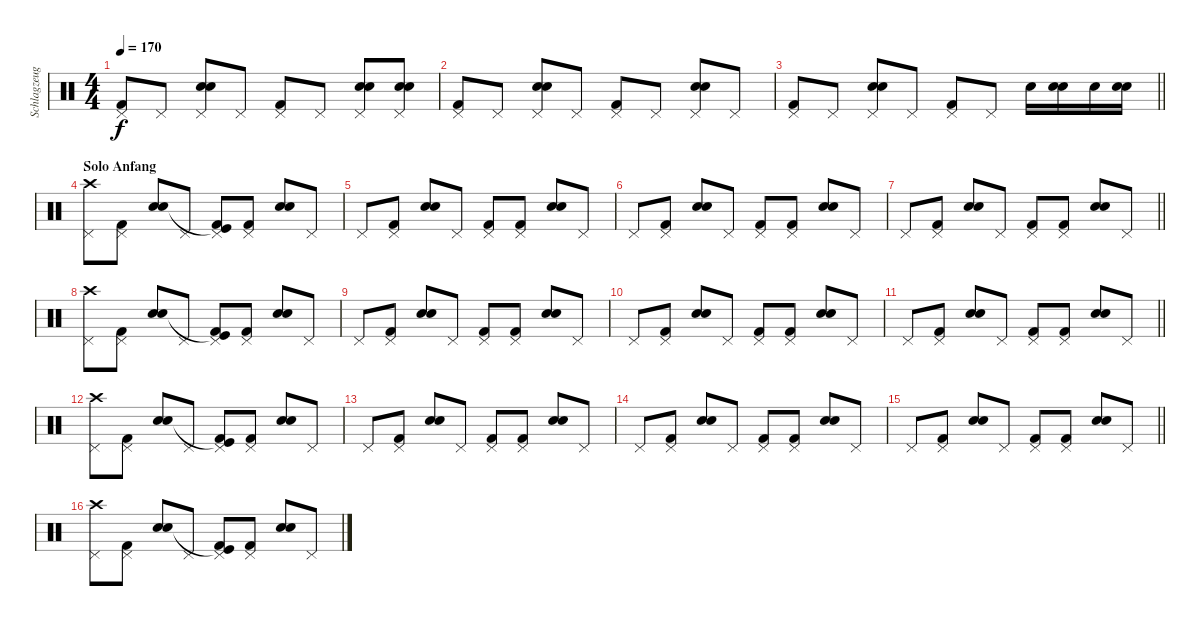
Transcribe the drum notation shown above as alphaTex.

\track ("Schlagzeug" "Schlagzeug") {instrument percussion}
\staff {score}
\articulation defaults
\ts (4 4)
\tempo 170
\clef neutral
\ks c
("Pedal Hi-Hat (hit)" "Kick (hit) 2").8{dy f} "Pedal Hi-Hat (hit)".8 ("Pedal Hi-Hat (hit)" "Snare (hit) 2" "Snare (hit) 2").8 "Pedal Hi-Hat (hit)".8 ("Pedal Hi-Hat (hit)" "Kick (hit) 2").8 "Pedal Hi-Hat (hit)".8 ("Pedal Hi-Hat (hit)" "Snare (hit) 2" "Snare (hit) 2").8 ("Pedal Hi-Hat (hit)" "Snare (hit) 2" "Snare (hit) 2").8 |
("Pedal Hi-Hat (hit)" "Kick (hit) 2").8 "Pedal Hi-Hat (hit)".8 ("Pedal Hi-Hat (hit)" "Snare (hit) 2" "Snare (hit) 2").8 "Pedal Hi-Hat (hit)".8 ("Pedal Hi-Hat (hit)" "Kick (hit) 2").8 "Pedal Hi-Hat (hit)".8 ("Pedal Hi-Hat (hit)" "Snare (hit) 2" "Snare (hit) 2").8 "Pedal Hi-Hat (hit)".8 |
\barLineRight lightlight
("Pedal Hi-Hat (hit)" "Kick (hit) 2").8 "Pedal Hi-Hat (hit)".8 ("Pedal Hi-Hat (hit)" "Snare (hit) 2" "Snare (hit) 2").8 "Pedal Hi-Hat (hit)".8 ("Pedal Hi-Hat (hit)" "Kick (hit) 2").8 "Pedal Hi-Hat (hit)".8 "Snare (hit) 2".16 ("Snare (hit) 2" "Snare (hit) 2").16 "Snare (hit) 2".16 ("Snare (hit) 2" "Snare (hit) 2").16 |
\section ("" "Solo Anfang")
("Pedal Hi-Hat (hit)" "Crash high (hit)").8 ("Pedal Hi-Hat (hit)" "Kick (hit) 2").8 ("Snare (hit) 2" "Snare (hit) 2").8 "Pedal Hi-Hat (hit)".8 ("Pedal Hi-Hat (hit)" "Kick (hit)"{t} "Kick (hit) 2").8 ("Pedal Hi-Hat (hit)" "Kick (hit) 2").8 ("Snare (hit) 2" "Snare (hit) 2").8 "Pedal Hi-Hat (hit)".8 |
"Pedal Hi-Hat (hit)".8 ("Pedal Hi-Hat (hit)" "Kick (hit) 2").8 ("Snare (hit) 2" "Snare (hit) 2").8 "Pedal Hi-Hat (hit)".8 ("Pedal Hi-Hat (hit)" "Kick (hit) 2").8 ("Pedal Hi-Hat (hit)" "Kick (hit) 2").8 ("Snare (hit) 2" "Snare (hit) 2").8 "Pedal Hi-Hat (hit)".8 |
"Pedal Hi-Hat (hit)".8 ("Pedal Hi-Hat (hit)" "Kick (hit) 2").8 ("Snare (hit) 2" "Snare (hit) 2").8 "Pedal Hi-Hat (hit)".8 ("Pedal Hi-Hat (hit)" "Kick (hit) 2").8 ("Pedal Hi-Hat (hit)" "Kick (hit) 2").8 ("Snare (hit) 2" "Snare (hit) 2").8 "Pedal Hi-Hat (hit)".8 |
\barLineRight lightlight "Pedal Hi-Hat (hit)".8
("Pedal Hi-Hat (hit)" "Kick (hit) 2").8 ("Snare (hit) 2" "Snare (hit) 2").8 "Pedal Hi-Hat (hit)".8 ("Pedal Hi-Hat (hit)" "Kick (hit) 2").8 ("Pedal Hi-Hat (hit)" "Kick (hit) 2").8 ("Snare (hit) 2" "Snare (hit) 2").8 "Pedal Hi-Hat (hit)".8 |
("Pedal Hi-Hat (hit)" "Crash high (hit)").8 ("Pedal Hi-Hat (hit)" "Kick (hit) 2").8 ("Snare (hit) 2" "Snare (hit) 2").8 "Pedal Hi-Hat (hit)".8 ("Pedal Hi-Hat (hit)" "Kick (hit)"{t} "Kick (hit) 2").8 ("Pedal Hi-Hat (hit)" "Kick (hit) 2").8 ("Snare (hit) 2" "Snare (hit) 2").8 "Pedal Hi-Hat (hit)".8 |
"Pedal Hi-Hat (hit)".8 ("Pedal Hi-Hat (hit)" "Kick (hit) 2").8 ("Snare (hit) 2" "Snare (hit) 2").8 "Pedal Hi-Hat (hit)".8 ("Pedal Hi-Hat (hit)" "Kick (hit) 2").8 ("Pedal Hi-Hat (hit)" "Kick (hit) 2").8 ("Snare (hit) 2" "Snare (hit) 2").8 "Pedal Hi-Hat (hit)".8 |
"Pedal Hi-Hat (hit)".8 ("Pedal Hi-Hat (hit)" "Kick (hit) 2").8 ("Snare (hit) 2" "Snare (hit) 2").8 "Pedal Hi-Hat (hit)".8 ("Pedal Hi-Hat (hit)" "Kick (hit) 2").8 ("Pedal Hi-Hat (hit)" "Kick (hit) 2").8 ("Snare (hit) 2" "Snare (hit) 2").8 "Pedal Hi-Hat (hit)".8 |
\barLineRight lightlight "Pedal Hi-Hat (hit)".8
("Pedal Hi-Hat (hit)" "Kick (hit) 2").8 ("Snare (hit) 2" "Snare (hit) 2").8 "Pedal Hi-Hat (hit)".8 ("Pedal Hi-Hat (hit)" "Kick (hit) 2").8 ("Pedal Hi-Hat (hit)" "Kick (hit) 2").8 ("Snare (hit) 2" "Snare (hit) 2").8 "Pedal Hi-Hat (hit)".8 |
("Pedal Hi-Hat (hit)" "Crash high (hit)").8 ("Pedal Hi-Hat (hit)" "Kick (hit) 2").8 ("Snare (hit) 2" "Snare (hit) 2").8 "Pedal Hi-Hat (hit)".8 ("Pedal Hi-Hat (hit)" "Kick (hit)"{t} "Kick (hit) 2").8 ("Pedal Hi-Hat (hit)" "Kick (hit) 2").8 ("Snare (hit) 2" "Snare (hit) 2").8 "Pedal Hi-Hat (hit)".8 |
"Pedal Hi-Hat (hit)".8 ("Pedal Hi-Hat (hit)" "Kick (hit) 2").8 ("Snare (hit) 2" "Snare (hit) 2").8 "Pedal Hi-Hat (hit)".8 ("Pedal Hi-Hat (hit)" "Kick (hit) 2").8 ("Pedal Hi-Hat (hit)" "Kick (hit) 2").8 ("Snare (hit) 2" "Snare (hit) 2").8 "Pedal Hi-Hat (hit)".8 |
"Pedal Hi-Hat (hit)".8 ("Pedal Hi-Hat (hit)" "Kick (hit) 2").8 ("Snare (hit) 2" "Snare (hit) 2").8 "Pedal Hi-Hat (hit)".8 ("Pedal Hi-Hat (hit)" "Kick (hit) 2").8 ("Pedal Hi-Hat (hit)" "Kick (hit) 2").8 ("Snare (hit) 2" "Snare (hit) 2").8 "Pedal Hi-Hat (hit)".8 |
\barLineRight lightlight "Pedal Hi-Hat (hit)".8
("Pedal Hi-Hat (hit)" "Kick (hit) 2").8 ("Snare (hit) 2" "Snare (hit) 2").8 "Pedal Hi-Hat (hit)".8 ("Pedal Hi-Hat (hit)" "Kick (hit) 2").8 ("Pedal Hi-Hat (hit)" "Kick (hit) 2").8 ("Snare (hit) 2" "Snare (hit) 2").8 "Pedal Hi-Hat (hit)".8 |
("Pedal Hi-Hat (hit)" "Crash high (hit)").8 ("Pedal Hi-Hat (hit)" "Kick (hit) 2").8 ("Snare (hit) 2" "Snare (hit) 2").8 "Pedal Hi-Hat (hit)".8 ("Pedal Hi-Hat (hit)" "Kick (hit)"{t} "Kick (hit) 2").8 ("Pedal Hi-Hat (hit)" "Kick (hit) 2").8 ("Snare (hit) 2" "Snare (hit) 2").8 "Pedal Hi-Hat (hit)".8
